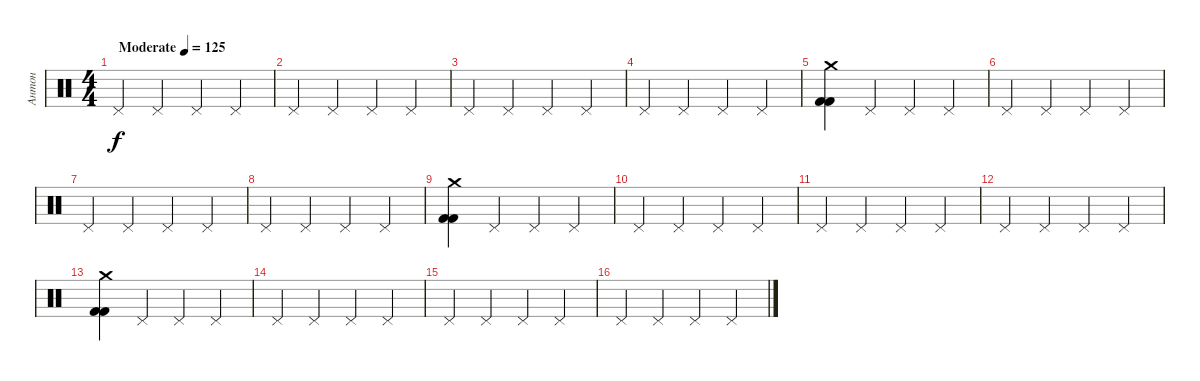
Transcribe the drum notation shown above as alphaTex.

\track ("Антон" "Антон") {instrument percussion}
\staff {score}
\articulation defaults
\ts (4 4)
\tempo (125 "Moderate")
\clef neutral
\ks c "Pedal Hi-Hat (hit)".4{dy f} "Pedal Hi-Hat (hit)".4 "Pedal Hi-Hat (hit)".4 "Pedal Hi-Hat (hit)".4
|
"Pedal Hi-Hat (hit)".4 "Pedal Hi-Hat (hit)".4 "Pedal Hi-Hat (hit)".4 "Pedal Hi-Hat (hit)".4 |
"Pedal Hi-Hat (hit)".4 "Pedal Hi-Hat (hit)".4 "Pedal Hi-Hat (hit)".4 "Pedal Hi-Hat (hit)".4 |
"Pedal Hi-Hat (hit)".4 "Pedal Hi-Hat (hit)".4 "Pedal Hi-Hat (hit)".4 "Pedal Hi-Hat (hit)".4 |
("Crash medium (hit)" "Kick (hit) 2" "Kick (hit) 2").4 "Pedal Hi-Hat (hit)".4 "Pedal Hi-Hat (hit)".4 "Pedal Hi-Hat (hit)".4 |
"Pedal Hi-Hat (hit)".4 "Pedal Hi-Hat (hit)".4 "Pedal Hi-Hat (hit)".4 "Pedal Hi-Hat (hit)".4 |
"Pedal Hi-Hat (hit)".4 "Pedal Hi-Hat (hit)".4 "Pedal Hi-Hat (hit)".4 "Pedal Hi-Hat (hit)".4 |
"Pedal Hi-Hat (hit)".4 "Pedal Hi-Hat (hit)".4 "Pedal Hi-Hat (hit)".4 "Pedal Hi-Hat (hit)".4 |
("Crash medium (hit)" "Kick (hit) 2" "Kick (hit) 2").4 "Pedal Hi-Hat (hit)".4 "Pedal Hi-Hat (hit)".4 "Pedal Hi-Hat (hit)".4 |
"Pedal Hi-Hat (hit)".4 "Pedal Hi-Hat (hit)".4 "Pedal Hi-Hat (hit)".4 "Pedal Hi-Hat (hit)".4 |
"Pedal Hi-Hat (hit)".4 "Pedal Hi-Hat (hit)".4 "Pedal Hi-Hat (hit)".4 "Pedal Hi-Hat (hit)".4 |
"Pedal Hi-Hat (hit)".4 "Pedal Hi-Hat (hit)".4 "Pedal Hi-Hat (hit)".4 "Pedal Hi-Hat (hit)".4 |
("Crash medium (hit)" "Kick (hit) 2" "Kick (hit) 2").4 "Pedal Hi-Hat (hit)".4 "Pedal Hi-Hat (hit)".4 "Pedal Hi-Hat (hit)".4 |
"Pedal Hi-Hat (hit)".4 "Pedal Hi-Hat (hit)".4 "Pedal Hi-Hat (hit)".4 "Pedal Hi-Hat (hit)".4 |
"Pedal Hi-Hat (hit)".4 "Pedal Hi-Hat (hit)".4 "Pedal Hi-Hat (hit)".4 "Pedal Hi-Hat (hit)".4 |
"Pedal Hi-Hat (hit)".4 "Pedal Hi-Hat (hit)".4 "Pedal Hi-Hat (hit)".4 "Pedal Hi-Hat (hit)".4
